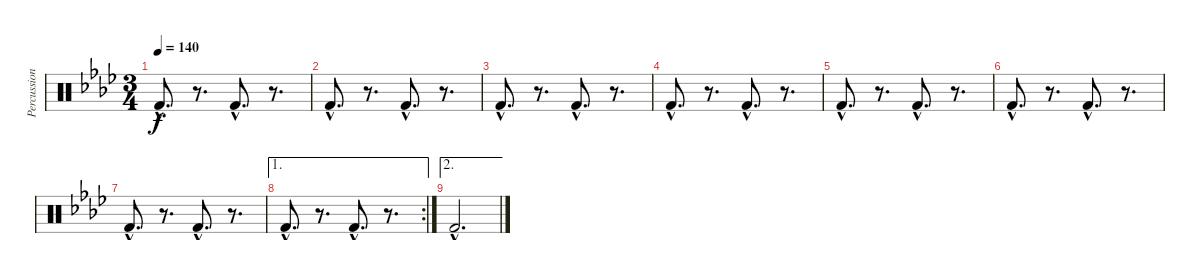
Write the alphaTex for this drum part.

\track ("Percussion" "Percussion") {instrument percussion}
\staff {score}
\articulation defaults
\ts (3 4)
\tempo 140
\clef neutral
\ks fminor "Kick (hit) 2"{hac}.8{d dy f}
r.8{d} "Kick (hit) 2"{hac}.8{d} r.8{d} |
"Kick (hit) 2"{hac}.8{d} r.8{d} "Kick (hit) 2"{hac}.8{d} r.8{d} |
"Kick (hit) 2"{hac}.8{d} r.8{d} "Kick (hit) 2"{hac}.8{d} r.8{d} |
"Kick (hit) 2"{hac}.8{d} r.8{d} "Kick (hit) 2"{hac}.8{d} r.8{d} |
"Kick (hit) 2"{hac}.8{d} r.8{d} "Kick (hit) 2"{hac}.8{d} r.8{d} |
"Kick (hit) 2"{hac}.8{d} r.8{d} "Kick (hit) 2"{hac}.8{d} r.8{d} |
"Kick (hit) 2"{hac}.8{d} r.8{d} "Kick (hit) 2"{hac}.8{d} r.8{d} |
\ae 1
\rc 2 "Kick (hit) 2"{hac}.8{d}
r.8{d} "Kick (hit) 2"{hac}.8{d} r.8{d} |
\ae 2 "Kick (hit) 2"{hac}.2{d}
